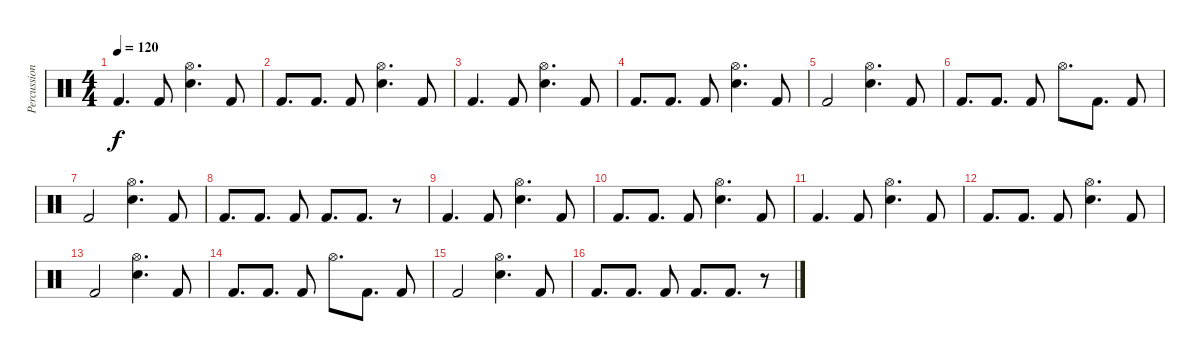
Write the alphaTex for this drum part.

\track ("Percussions" "Percussion") {instrument percussion}
\staff {score}
\articulation defaults
\ts (4 4)
\tempo 120
\clef neutral
\ks c "Kick (hit) 2".4{d dy f} "Kick (hit) 2".8
("Hi-Hat (open)" "Snare (hit) 2").4{d} "Kick (hit) 2".8 |
"Kick (hit) 2".8{d} "Kick (hit) 2".8{d} "Kick (hit) 2".8 ("Hi-Hat (open)" "Snare (hit) 2").4{d} "Kick (hit) 2".8 |
"Kick (hit) 2".4{d} "Kick (hit) 2".8 ("Hi-Hat (open)" "Snare (hit) 2").4{d} "Kick (hit) 2".8 |
"Kick (hit) 2".8{d} "Kick (hit) 2".8{d} "Kick (hit) 2".8 ("Hi-Hat (open)" "Snare (hit) 2").4{d} "Kick (hit) 2".8 |
"Kick (hit) 2".2 ("Hi-Hat (open)" "Snare (hit) 2").4{d} "Kick (hit) 2".8 |
"Kick (hit) 2".8{d} "Kick (hit) 2".8{d} "Kick (hit) 2".8 "Hi-Hat (open)".8{d} "Kick (hit) 2".8{d} "Kick (hit) 2".8 |
"Kick (hit) 2".2 ("Hi-Hat (open)" "Snare (hit) 2").4{d} "Kick (hit) 2".8 |
"Kick (hit) 2".8{d} "Kick (hit) 2".8{d} "Kick (hit) 2".8 "Kick (hit) 2".8{d} "Kick (hit) 2".8{d} r.8 |
"Kick (hit) 2".4{d} "Kick (hit) 2".8 ("Hi-Hat (open)" "Snare (hit) 2").4{d} "Kick (hit) 2".8 |
"Kick (hit) 2".8{d} "Kick (hit) 2".8{d} "Kick (hit) 2".8 ("Hi-Hat (open)" "Snare (hit) 2").4{d} "Kick (hit) 2".8 |
"Kick (hit) 2".4{d} "Kick (hit) 2".8 ("Hi-Hat (open)" "Snare (hit) 2").4{d} "Kick (hit) 2".8 |
"Kick (hit) 2".8{d} "Kick (hit) 2".8{d} "Kick (hit) 2".8 ("Hi-Hat (open)" "Snare (hit) 2").4{d} "Kick (hit) 2".8 |
"Kick (hit) 2".2 ("Hi-Hat (open)" "Snare (hit) 2").4{d} "Kick (hit) 2".8 |
"Kick (hit) 2".8{d} "Kick (hit) 2".8{d} "Kick (hit) 2".8 "Hi-Hat (open)".8{d} "Kick (hit) 2".8{d} "Kick (hit) 2".8 |
"Kick (hit) 2".2 ("Hi-Hat (open)" "Snare (hit) 2").4{d} "Kick (hit) 2".8 |
"Kick (hit) 2".8{d} "Kick (hit) 2".8{d} "Kick (hit) 2".8 "Kick (hit) 2".8{d} "Kick (hit) 2".8{d} r.8
